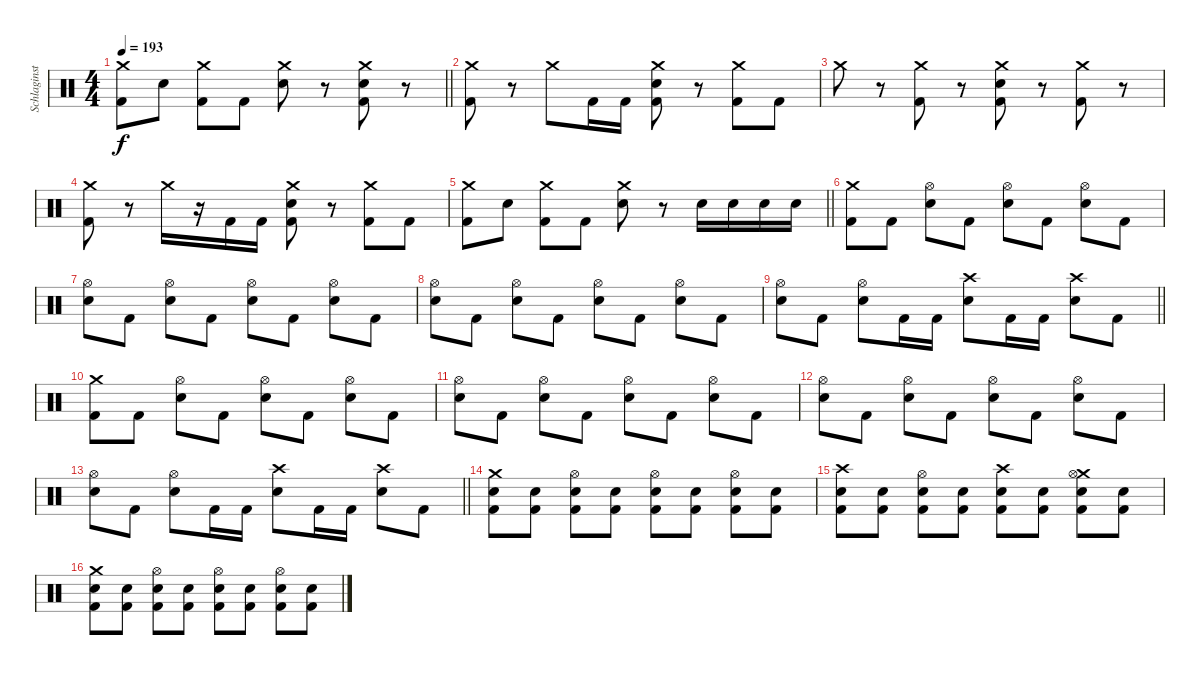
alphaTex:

\track ("Schlaginstrumente - Auswahl" "Schlaginst") {instrument percussion}
\staff {score}
\articulation defaults
\ts (4 4)
\tempo 193
\clef neutral
\barLineRight lightlight
\ks c
("Crash medium (hit)" "Kick (hit) 2").8{dy f} "Electric Snare (hit)".8 ("Crash medium (hit)" "Kick (hit) 2").8 "Kick (hit) 2".8 ("Crash medium (hit)" "Electric Snare (hit)").8 r.8 ("Crash medium (hit)" "Electric Snare (hit)" "Kick (hit) 2").8 r.8 |
("Crash medium (hit)" "Kick (hit) 2").8 r.8 "Crash medium (hit)".8 "Kick (hit) 2".16 "Kick (hit) 2".16 ("Crash medium (hit)" "Electric Snare (hit)" "Kick (hit) 2").8 r.8 ("Crash medium (hit)" "Kick (hit) 2").8 "Kick (hit) 2".8 |
"Crash medium (hit)".8 r.8 ("Crash medium (hit)" "Kick (hit) 2").8 r.8 ("Crash medium (hit)" "Electric Snare (hit)" "Kick (hit) 2").8 r.8 ("Crash medium (hit)" "Kick (hit) 2").8 r.8 |
("Crash medium (hit)" "Kick (hit) 2").8 r.8 "Crash medium (hit)".16 r.16 "Kick (hit) 2".16 "Kick (hit) 2".16 ("Crash medium (hit)" "Electric Snare (hit)" "Kick (hit) 2").8 r.8 ("Crash medium (hit)" "Kick (hit) 2").8 "Kick (hit) 2".8 |
\barLineRight lightlight
("Crash medium (hit)" "Kick (hit) 2").8 "Electric Snare (hit)".8 ("Crash medium (hit)" "Kick (hit) 2").8 "Kick (hit) 2".8 ("Crash medium (hit)" "Electric Snare (hit)").8 r.8 "Electric Snare (hit)".16 "Electric Snare (hit)".16 "Electric Snare (hit)".16 "Electric Snare (hit)".16 |
("Crash medium (hit)" "Kick (hit) 2").8 "Kick (hit) 2".8 ("Hi-Hat (open)" "Electric Snare (hit)").8 "Kick (hit) 2".8 ("Hi-Hat (open)" "Electric Snare (hit)").8 "Kick (hit) 2".8 ("Hi-Hat (open)" "Electric Snare (hit)").8 "Kick (hit) 2".8 |
("Hi-Hat (open)" "Electric Snare (hit)").8 "Kick (hit) 2".8 ("Hi-Hat (open)" "Electric Snare (hit)").8 "Kick (hit) 2".8 ("Hi-Hat (open)" "Electric Snare (hit)").8 "Kick (hit) 2".8 ("Hi-Hat (open)" "Electric Snare (hit)").8 "Kick (hit) 2".8 |
("Hi-Hat (open)" "Electric Snare (hit)").8 "Kick (hit) 2".8 ("Hi-Hat (open)" "Electric Snare (hit)").8 "Kick (hit) 2".8 ("Hi-Hat (open)" "Electric Snare (hit)").8 "Kick (hit) 2".8 ("Hi-Hat (open)" "Electric Snare (hit)").8 "Kick (hit) 2".8 |
\barLineRight lightlight
("Hi-Hat (open)" "Electric Snare (hit)").8 "Kick (hit) 2".8 ("Hi-Hat (open)" "Electric Snare (hit)").8 "Kick (hit) 2".16 "Kick (hit) 2".16 ("Crash high (hit)" "Electric Snare (hit)").8 "Kick (hit) 2".16 "Kick (hit) 2".16 ("Crash high (hit)" "Electric Snare (hit)").8 "Kick (hit) 2".8 |
("Crash medium (hit)" "Kick (hit) 2").8 "Kick (hit) 2".8 ("Hi-Hat (open)" "Electric Snare (hit)").8 "Kick (hit) 2".8 ("Hi-Hat (open)" "Electric Snare (hit)").8 "Kick (hit) 2".8 ("Hi-Hat (open)" "Electric Snare (hit)").8 "Kick (hit) 2".8 |
("Hi-Hat (open)" "Electric Snare (hit)").8 "Kick (hit) 2".8 ("Hi-Hat (open)" "Electric Snare (hit)").8 "Kick (hit) 2".8 ("Hi-Hat (open)" "Electric Snare (hit)").8 "Kick (hit) 2".8 ("Hi-Hat (open)" "Electric Snare (hit)").8 "Kick (hit) 2".8 |
("Hi-Hat (open)" "Electric Snare (hit)").8 "Kick (hit) 2".8 ("Hi-Hat (open)" "Electric Snare (hit)").8 "Kick (hit) 2".8 ("Hi-Hat (open)" "Electric Snare (hit)").8 "Kick (hit) 2".8 ("Hi-Hat (open)" "Electric Snare (hit)").8 "Kick (hit) 2".8 |
\barLineRight lightlight
("Hi-Hat (open)" "Electric Snare (hit)").8 "Kick (hit) 2".8 ("Hi-Hat (open)" "Electric Snare (hit)").8 "Kick (hit) 2".16 "Kick (hit) 2".16 ("Crash high (hit)" "Electric Snare (hit)").8 "Kick (hit) 2".16 "Kick (hit) 2".16 ("Crash high (hit)" "Electric Snare (hit)").8 "Kick (hit) 2".8 |
("Crash medium (hit)" "Electric Snare (hit)" "Kick (hit) 2").8 ("Electric Snare (hit)" "Kick (hit) 2").8 ("Hi-Hat (open)" "Electric Snare (hit)" "Kick (hit) 2").8 ("Electric Snare (hit)" "Kick (hit) 2").8 ("Hi-Hat (open)" "Electric Snare (hit)" "Kick (hit) 2").8 ("Electric Snare (hit)" "Kick (hit) 2").8 ("Hi-Hat (open)" "Electric Snare (hit)" "Kick (hit) 2").8 ("Electric Snare (hit)" "Kick (hit) 2").8 |
("Crash high (hit)" "Electric Snare (hit)" "Kick (hit) 2").8 ("Electric Snare (hit)" "Kick (hit) 2").8 ("Hi-Hat (open)" "Electric Snare (hit)" "Kick (hit) 2").8 ("Electric Snare (hit)" "Kick (hit) 2").8 ("Crash high (hit)" "Electric Snare (hit)" "Kick (hit) 2").8 ("Electric Snare (hit)" "Kick (hit) 2").8 ("Crash medium (hit)" "Hi-Hat (open)" "Electric Snare (hit)" "Kick (hit) 2").8 ("Electric Snare (hit)" "Kick (hit) 2").8 |
("Crash medium (hit)" "Electric Snare (hit)" "Kick (hit) 2").8 ("Electric Snare (hit)" "Kick (hit) 2").8 ("Hi-Hat (open)" "Electric Snare (hit)" "Kick (hit) 2").8 ("Electric Snare (hit)" "Kick (hit) 2").8 ("Hi-Hat (open)" "Electric Snare (hit)" "Kick (hit) 2").8 ("Electric Snare (hit)" "Kick (hit) 2").8 ("Hi-Hat (open)" "Electric Snare (hit)" "Kick (hit) 2").8 ("Electric Snare (hit)" "Kick (hit) 2").8
